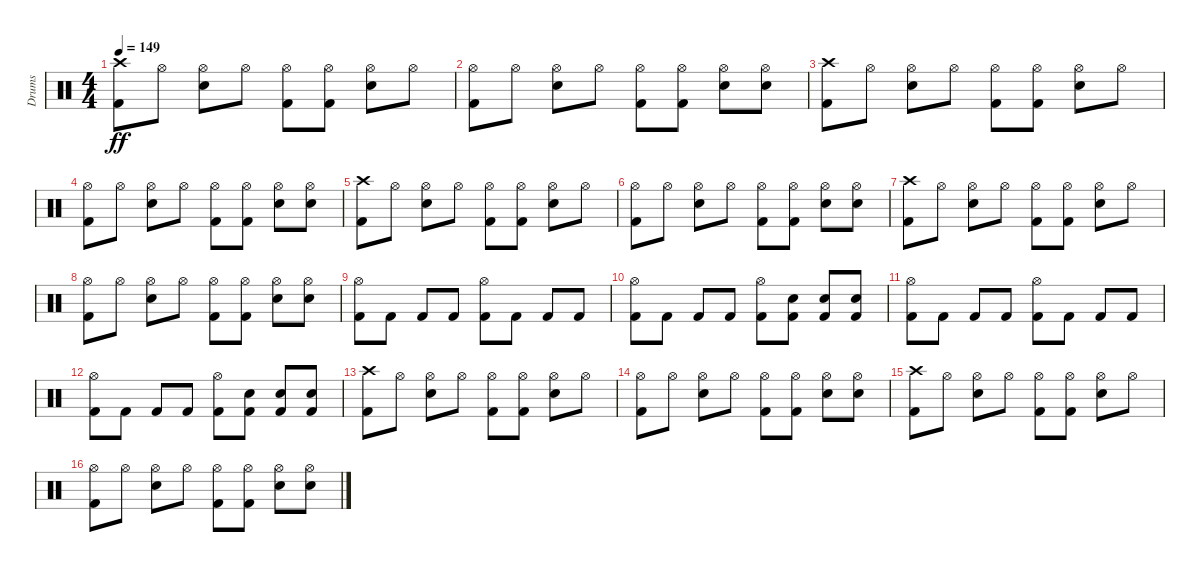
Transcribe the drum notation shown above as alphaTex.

\track ("Drums" "Drums") {instrument percussion}
\staff {score}
\articulation defaults
\ts (4 4)
\tempo 149
\clef neutral
\ks c
("Kick (hit) 2" "Crash high (hit)").8{dy ff} "Hi-Hat (open)".8 ("Snare (hit) 2" "Hi-Hat (open)").8 "Hi-Hat (open)".8 ("Kick (hit) 2" "Hi-Hat (open)").8 ("Kick (hit) 2" "Hi-Hat (open)").8 ("Snare (hit) 2" "Hi-Hat (open)").8 "Hi-Hat (open)".8 |
("Kick (hit) 2" "Hi-Hat (open)").8 "Hi-Hat (open)".8 ("Snare (hit) 2" "Hi-Hat (open)").8 "Hi-Hat (open)".8 ("Kick (hit) 2" "Hi-Hat (open)").8 ("Kick (hit) 2" "Hi-Hat (open)").8 ("Snare (hit) 2" "Hi-Hat (open)").8 ("Snare (hit) 2" "Hi-Hat (open)").8 |
("Kick (hit) 2" "Crash high (hit)").8 "Hi-Hat (open)".8 ("Snare (hit) 2" "Hi-Hat (open)").8 "Hi-Hat (open)".8 ("Kick (hit) 2" "Hi-Hat (open)").8 ("Kick (hit) 2" "Hi-Hat (open)").8 ("Snare (hit) 2" "Hi-Hat (open)").8 "Hi-Hat (open)".8 |
("Kick (hit) 2" "Hi-Hat (open)").8 "Hi-Hat (open)".8 ("Snare (hit) 2" "Hi-Hat (open)").8 "Hi-Hat (open)".8 ("Kick (hit) 2" "Hi-Hat (open)").8 ("Kick (hit) 2" "Hi-Hat (open)").8 ("Snare (hit) 2" "Hi-Hat (open)").8 ("Snare (hit) 2" "Hi-Hat (open)").8 |
("Kick (hit) 2" "Crash high (hit)").8 "Hi-Hat (open)".8 ("Snare (hit) 2" "Hi-Hat (open)").8 "Hi-Hat (open)".8 ("Kick (hit) 2" "Hi-Hat (open)").8 ("Kick (hit) 2" "Hi-Hat (open)").8 ("Snare (hit) 2" "Hi-Hat (open)").8 "Hi-Hat (open)".8 |
("Kick (hit) 2" "Hi-Hat (open)").8 "Hi-Hat (open)".8 ("Snare (hit) 2" "Hi-Hat (open)").8 "Hi-Hat (open)".8 ("Kick (hit) 2" "Hi-Hat (open)").8 ("Kick (hit) 2" "Hi-Hat (open)").8 ("Snare (hit) 2" "Hi-Hat (open)").8 ("Snare (hit) 2" "Hi-Hat (open)").8 |
("Kick (hit) 2" "Crash high (hit)").8 "Hi-Hat (open)".8 ("Snare (hit) 2" "Hi-Hat (open)").8 "Hi-Hat (open)".8 ("Kick (hit) 2" "Hi-Hat (open)").8 ("Kick (hit) 2" "Hi-Hat (open)").8 ("Snare (hit) 2" "Hi-Hat (open)").8 "Hi-Hat (open)".8 |
("Kick (hit) 2" "Hi-Hat (open)").8 "Hi-Hat (open)".8 ("Snare (hit) 2" "Hi-Hat (open)").8 "Hi-Hat (open)".8 ("Kick (hit) 2" "Hi-Hat (open)").8 ("Kick (hit) 2" "Hi-Hat (open)").8 ("Snare (hit) 2" "Hi-Hat (open)").8 ("Snare (hit) 2" "Hi-Hat (open)").8 |
("Kick (hit) 2" "Hi-Hat (open)").8 "Kick (hit) 2".8 "Kick (hit) 2".8 "Kick (hit) 2".8 ("Kick (hit) 2" "Hi-Hat (open)").8 "Kick (hit) 2".8 "Kick (hit) 2".8 "Kick (hit) 2".8 |
("Kick (hit) 2" "Hi-Hat (open)").8 "Kick (hit) 2".8 "Kick (hit) 2".8 "Kick (hit) 2".8 ("Kick (hit) 2" "Hi-Hat (open)").8 ("Kick (hit) 2" "Snare (hit) 2").8 ("Kick (hit) 2" "Snare (hit) 2").8 ("Kick (hit) 2" "Snare (hit) 2").8 |
("Kick (hit) 2" "Hi-Hat (open)").8 "Kick (hit) 2".8 "Kick (hit) 2".8 "Kick (hit) 2".8 ("Kick (hit) 2" "Hi-Hat (open)").8 "Kick (hit) 2".8 "Kick (hit) 2".8 "Kick (hit) 2".8 |
("Kick (hit) 2" "Hi-Hat (open)").8 "Kick (hit) 2".8 "Kick (hit) 2".8 "Kick (hit) 2".8 ("Kick (hit) 2" "Hi-Hat (open)").8 ("Kick (hit) 2" "Snare (hit) 2").8 ("Kick (hit) 2" "Snare (hit) 2").8 ("Kick (hit) 2" "Snare (hit) 2").8 |
("Kick (hit) 2" "Crash high (hit)").8 "Hi-Hat (open)".8 ("Snare (hit) 2" "Hi-Hat (open)").8 "Hi-Hat (open)".8 ("Kick (hit) 2" "Hi-Hat (open)").8 ("Kick (hit) 2" "Hi-Hat (open)").8 ("Snare (hit) 2" "Hi-Hat (open)").8 "Hi-Hat (open)".8 |
("Kick (hit) 2" "Hi-Hat (open)").8 "Hi-Hat (open)".8 ("Snare (hit) 2" "Hi-Hat (open)").8 "Hi-Hat (open)".8 ("Kick (hit) 2" "Hi-Hat (open)").8 ("Kick (hit) 2" "Hi-Hat (open)").8 ("Snare (hit) 2" "Hi-Hat (open)").8 ("Snare (hit) 2" "Hi-Hat (open)").8 |
("Kick (hit) 2" "Crash high (hit)").8 "Hi-Hat (open)".8 ("Snare (hit) 2" "Hi-Hat (open)").8 "Hi-Hat (open)".8 ("Kick (hit) 2" "Hi-Hat (open)").8 ("Kick (hit) 2" "Hi-Hat (open)").8 ("Snare (hit) 2" "Hi-Hat (open)").8 "Hi-Hat (open)".8 |
("Kick (hit) 2" "Hi-Hat (open)").8 "Hi-Hat (open)".8 ("Snare (hit) 2" "Hi-Hat (open)").8 "Hi-Hat (open)".8 ("Kick (hit) 2" "Hi-Hat (open)").8 ("Kick (hit) 2" "Hi-Hat (open)").8 ("Snare (hit) 2" "Hi-Hat (open)").8 ("Snare (hit) 2" "Hi-Hat (open)").8
